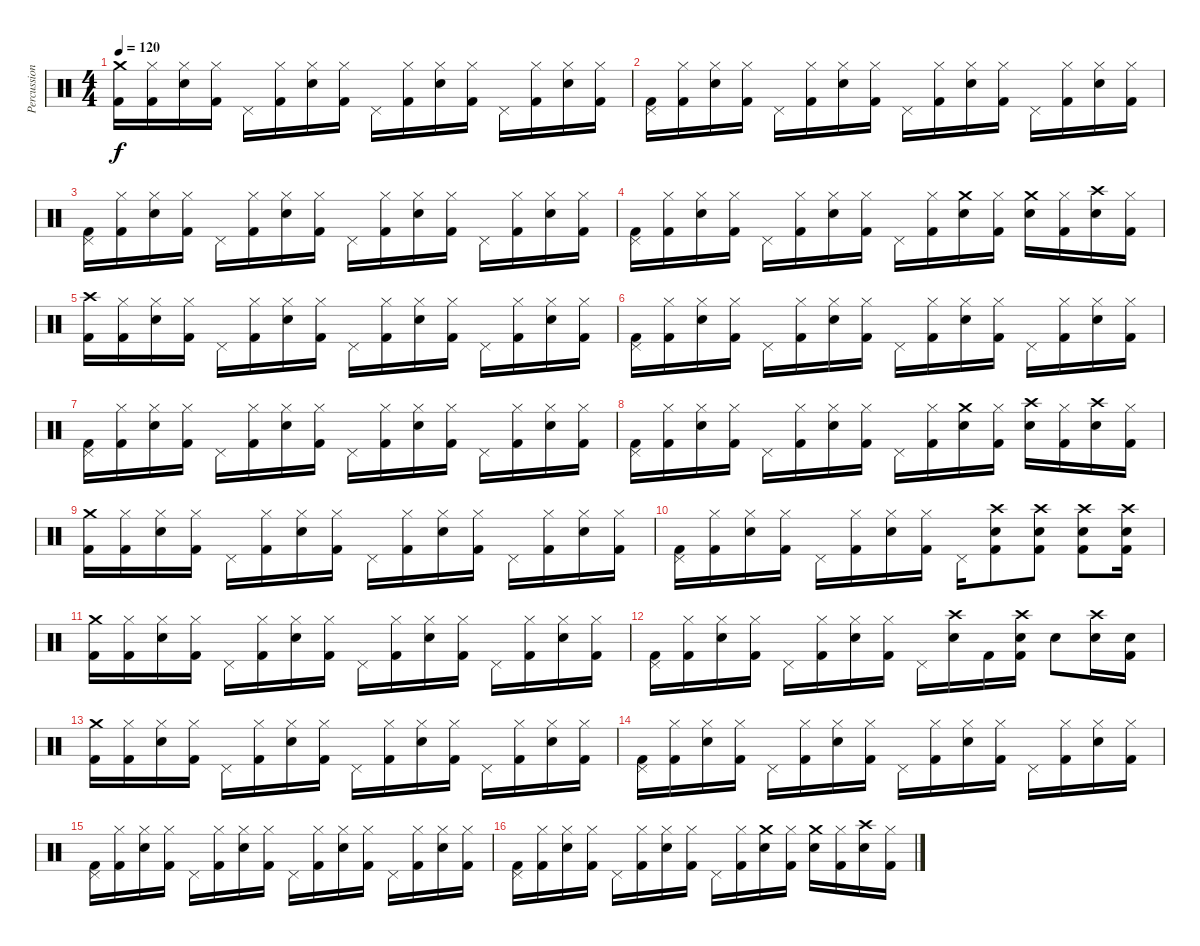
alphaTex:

\track ("Percussion" "Percussion") {instrument percussion}
\staff {score}
\articulation defaults
\ts (4 4)
\tempo 120
\clef neutral
\ks c
("Crash medium (hit)" "Kick (hit) 2").16{dy f} ("Hi-Hat (closed)" "Kick (hit) 2").16 ("Hi-Hat (closed)" "Snare (hit) 2").16 ("Hi-Hat (closed)" "Kick (hit) 2").16 "Pedal Hi-Hat (hit)".16 ("Hi-Hat (closed)" "Kick (hit) 2").16 ("Hi-Hat (closed)" "Snare (hit) 2").16 ("Hi-Hat (closed)" "Kick (hit) 2").16 "Pedal Hi-Hat (hit)".16 ("Hi-Hat (closed)" "Kick (hit) 2").16 ("Hi-Hat (closed)" "Snare (hit) 2").16 ("Hi-Hat (closed)" "Kick (hit) 2").16 "Pedal Hi-Hat (hit)".16 ("Hi-Hat (closed)" "Kick (hit) 2").16 ("Hi-Hat (closed)" "Snare (hit) 2").16 ("Hi-Hat (closed)" "Kick (hit) 2").16 |
("Pedal Hi-Hat (hit)" "Kick (hit) 2").16 ("Hi-Hat (closed)" "Kick (hit) 2").16 ("Hi-Hat (closed)" "Snare (hit) 2").16 ("Hi-Hat (closed)" "Kick (hit) 2").16 "Pedal Hi-Hat (hit)".16 ("Hi-Hat (closed)" "Kick (hit) 2").16 ("Hi-Hat (closed)" "Snare (hit) 2").16 ("Hi-Hat (closed)" "Kick (hit) 2").16 "Pedal Hi-Hat (hit)".16 ("Hi-Hat (closed)" "Kick (hit) 2").16 ("Hi-Hat (closed)" "Snare (hit) 2").16 ("Hi-Hat (closed)" "Kick (hit) 2").16 "Pedal Hi-Hat (hit)".16 ("Hi-Hat (closed)" "Kick (hit) 2").16 ("Hi-Hat (closed)" "Snare (hit) 2").16 ("Hi-Hat (closed)" "Kick (hit) 2").16 |
("Pedal Hi-Hat (hit)" "Kick (hit) 2").16 ("Hi-Hat (closed)" "Kick (hit) 2").16 ("Hi-Hat (closed)" "Snare (hit) 2").16 ("Hi-Hat (closed)" "Kick (hit) 2").16 "Pedal Hi-Hat (hit)".16 ("Hi-Hat (closed)" "Kick (hit) 2").16 ("Hi-Hat (closed)" "Snare (hit) 2").16 ("Hi-Hat (closed)" "Kick (hit) 2").16 "Pedal Hi-Hat (hit)".16 ("Hi-Hat (closed)" "Kick (hit) 2").16 ("Hi-Hat (closed)" "Snare (hit) 2").16 ("Hi-Hat (closed)" "Kick (hit) 2").16 "Pedal Hi-Hat (hit)".16 ("Hi-Hat (closed)" "Kick (hit) 2").16 ("Hi-Hat (closed)" "Snare (hit) 2").16 ("Hi-Hat (closed)" "Kick (hit) 2").16 |
("Pedal Hi-Hat (hit)" "Kick (hit) 2").16 ("Hi-Hat (closed)" "Kick (hit) 2").16 ("Hi-Hat (closed)" "Snare (hit) 2").16 ("Hi-Hat (closed)" "Kick (hit) 2").16 "Pedal Hi-Hat (hit)".16 ("Hi-Hat (closed)" "Kick (hit) 2").16 ("Hi-Hat (closed)" "Snare (hit) 2").16 ("Hi-Hat (closed)" "Kick (hit) 2").16 "Pedal Hi-Hat (hit)".16 ("Hi-Hat (closed)" "Kick (hit) 2").16 ("Crash medium (hit)" "Snare (hit) 2").16 ("Hi-Hat (closed)" "Kick (hit) 2").16 ("Crash medium (hit)" "Snare (hit) 2").16 ("Hi-Hat (closed)" "Kick (hit) 2").16 ("Crash high (hit)" "Snare (hit) 2").16 ("Hi-Hat (closed)" "Kick (hit) 2").16 |
("Crash high (hit)" "Kick (hit) 2").16 ("Hi-Hat (closed)" "Kick (hit) 2").16 ("Hi-Hat (closed)" "Snare (hit) 2").16 ("Hi-Hat (closed)" "Kick (hit) 2").16 "Pedal Hi-Hat (hit)".16 ("Hi-Hat (closed)" "Kick (hit) 2").16 ("Hi-Hat (closed)" "Snare (hit) 2").16 ("Hi-Hat (closed)" "Kick (hit) 2").16 "Pedal Hi-Hat (hit)".16 ("Hi-Hat (closed)" "Kick (hit) 2").16 ("Hi-Hat (closed)" "Snare (hit) 2").16 ("Hi-Hat (closed)" "Kick (hit) 2").16 "Pedal Hi-Hat (hit)".16 ("Hi-Hat (closed)" "Kick (hit) 2").16 ("Hi-Hat (closed)" "Snare (hit) 2").16 ("Hi-Hat (closed)" "Kick (hit) 2").16 |
("Pedal Hi-Hat (hit)" "Kick (hit) 2").16 ("Hi-Hat (closed)" "Kick (hit) 2").16 ("Hi-Hat (closed)" "Snare (hit) 2").16 ("Hi-Hat (closed)" "Kick (hit) 2").16 "Pedal Hi-Hat (hit)".16 ("Hi-Hat (closed)" "Kick (hit) 2").16 ("Hi-Hat (closed)" "Snare (hit) 2").16 ("Hi-Hat (closed)" "Kick (hit) 2").16 "Pedal Hi-Hat (hit)".16 ("Hi-Hat (closed)" "Kick (hit) 2").16 ("Hi-Hat (closed)" "Snare (hit) 2").16 ("Hi-Hat (closed)" "Kick (hit) 2").16 "Pedal Hi-Hat (hit)".16 ("Hi-Hat (closed)" "Kick (hit) 2").16 ("Hi-Hat (closed)" "Snare (hit) 2").16 ("Hi-Hat (closed)" "Kick (hit) 2").16 |
("Pedal Hi-Hat (hit)" "Kick (hit) 2").16 ("Hi-Hat (closed)" "Kick (hit) 2").16 ("Hi-Hat (closed)" "Snare (hit) 2").16 ("Hi-Hat (closed)" "Kick (hit) 2").16 "Pedal Hi-Hat (hit)".16 ("Hi-Hat (closed)" "Kick (hit) 2").16 ("Hi-Hat (closed)" "Snare (hit) 2").16 ("Hi-Hat (closed)" "Kick (hit) 2").16 "Pedal Hi-Hat (hit)".16 ("Hi-Hat (closed)" "Kick (hit) 2").16 ("Hi-Hat (closed)" "Snare (hit) 2").16 ("Hi-Hat (closed)" "Kick (hit) 2").16 "Pedal Hi-Hat (hit)".16 ("Hi-Hat (closed)" "Kick (hit) 2").16 ("Hi-Hat (closed)" "Snare (hit) 2").16 ("Hi-Hat (closed)" "Kick (hit) 2").16 |
("Pedal Hi-Hat (hit)" "Kick (hit) 2").16 ("Hi-Hat (closed)" "Kick (hit) 2").16 ("Hi-Hat (closed)" "Snare (hit) 2").16 ("Hi-Hat (closed)" "Kick (hit) 2").16 "Pedal Hi-Hat (hit)".16 ("Hi-Hat (closed)" "Kick (hit) 2").16 ("Hi-Hat (closed)" "Snare (hit) 2").16 ("Hi-Hat (closed)" "Kick (hit) 2").16 "Pedal Hi-Hat (hit)".16 ("Hi-Hat (closed)" "Kick (hit) 2").16 ("Crash medium (hit)" "Snare (hit) 2").16 ("Hi-Hat (closed)" "Kick (hit) 2").16 ("Crash high (hit)" "Snare (hit) 2").16 ("Hi-Hat (closed)" "Kick (hit) 2").16 ("Crash high (hit)" "Snare (hit) 2").16 ("Hi-Hat (closed)" "Kick (hit) 2").16 |
("Crash medium (hit)" "Kick (hit) 2").16 ("Hi-Hat (closed)" "Kick (hit) 2").16 ("Hi-Hat (closed)" "Snare (hit) 2").16 ("Hi-Hat (closed)" "Kick (hit) 2").16 "Pedal Hi-Hat (hit)".16 ("Hi-Hat (closed)" "Kick (hit) 2").16 ("Hi-Hat (closed)" "Snare (hit) 2").16 ("Hi-Hat (closed)" "Kick (hit) 2").16 "Pedal Hi-Hat (hit)".16 ("Hi-Hat (closed)" "Kick (hit) 2").16 ("Hi-Hat (closed)" "Snare (hit) 2").16 ("Hi-Hat (closed)" "Kick (hit) 2").16 "Pedal Hi-Hat (hit)".16 ("Hi-Hat (closed)" "Kick (hit) 2").16 ("Hi-Hat (closed)" "Snare (hit) 2").16 ("Hi-Hat (closed)" "Kick (hit) 2").16 |
("Pedal Hi-Hat (hit)" "Kick (hit) 2").16 ("Hi-Hat (closed)" "Kick (hit) 2").16 ("Hi-Hat (closed)" "Snare (hit) 2").16 ("Hi-Hat (closed)" "Kick (hit) 2").16 "Pedal Hi-Hat (hit)".16 ("Hi-Hat (closed)" "Kick (hit) 2").16 ("Hi-Hat (closed)" "Snare (hit) 2").16 ("Hi-Hat (closed)" "Kick (hit) 2").16 "Pedal Hi-Hat (hit)".16 ("Crash high (hit)" "Snare (hit) 2" "Kick (hit) 2").8 ("Crash high (hit)" "Snare (hit) 2" "Kick (hit) 2").8 ("Crash high (hit)" "Snare (hit) 2" "Kick (hit) 2").8 ("Crash high (hit)" "Snare (hit) 2" "Kick (hit) 2").16 |
("Crash medium (hit)" "Kick (hit) 2").16 ("Hi-Hat (closed)" "Kick (hit) 2").16 ("Hi-Hat (closed)" "Snare (hit) 2").16 ("Hi-Hat (closed)" "Kick (hit) 2").16 "Pedal Hi-Hat (hit)".16 ("Hi-Hat (closed)" "Kick (hit) 2").16 ("Hi-Hat (closed)" "Snare (hit) 2").16 ("Hi-Hat (closed)" "Kick (hit) 2").16 "Pedal Hi-Hat (hit)".16 ("Hi-Hat (closed)" "Kick (hit) 2").16 ("Hi-Hat (closed)" "Snare (hit) 2").16 ("Hi-Hat (closed)" "Kick (hit) 2").16 "Pedal Hi-Hat (hit)".16 ("Hi-Hat (closed)" "Kick (hit) 2").16 ("Hi-Hat (closed)" "Snare (hit) 2").16 ("Hi-Hat (closed)" "Kick (hit) 2").16 |
("Pedal Hi-Hat (hit)" "Kick (hit) 2").16 ("Hi-Hat (closed)" "Kick (hit) 2").16 ("Hi-Hat (closed)" "Snare (hit) 2").16 ("Hi-Hat (closed)" "Kick (hit) 2").16 "Pedal Hi-Hat (hit)".16 ("Hi-Hat (closed)" "Kick (hit) 2").16 ("Hi-Hat (closed)" "Snare (hit) 2").16 ("Hi-Hat (closed)" "Kick (hit) 2").16 "Pedal Hi-Hat (hit)".16 ("Crash high (hit)" "Electric Snare (hit)").16 "Kick (hit) 2".16 ("Crash high (hit)" "Electric Snare (hit)" "Kick (hit) 2").16 "Electric Snare (hit)".8 ("Crash high (hit)" "Electric Snare (hit)").16 ("Electric Snare (hit)" "Kick (hit) 2").16 |
("Crash medium (hit)" "Kick (hit) 2").16 ("Hi-Hat (closed)" "Kick (hit) 2").16 ("Hi-Hat (closed)" "Snare (hit) 2").16 ("Hi-Hat (closed)" "Kick (hit) 2").16 "Pedal Hi-Hat (hit)".16 ("Hi-Hat (closed)" "Kick (hit) 2").16 ("Hi-Hat (closed)" "Snare (hit) 2").16 ("Hi-Hat (closed)" "Kick (hit) 2").16 "Pedal Hi-Hat (hit)".16 ("Hi-Hat (closed)" "Kick (hit) 2").16 ("Hi-Hat (closed)" "Snare (hit) 2").16 ("Hi-Hat (closed)" "Kick (hit) 2").16 "Pedal Hi-Hat (hit)".16 ("Hi-Hat (closed)" "Kick (hit) 2").16 ("Hi-Hat (closed)" "Snare (hit) 2").16 ("Hi-Hat (closed)" "Kick (hit) 2").16 |
("Pedal Hi-Hat (hit)" "Kick (hit) 2").16 ("Hi-Hat (closed)" "Kick (hit) 2").16 ("Hi-Hat (closed)" "Snare (hit) 2").16 ("Hi-Hat (closed)" "Kick (hit) 2").16 "Pedal Hi-Hat (hit)".16 ("Hi-Hat (closed)" "Kick (hit) 2").16 ("Hi-Hat (closed)" "Snare (hit) 2").16 ("Hi-Hat (closed)" "Kick (hit) 2").16 "Pedal Hi-Hat (hit)".16 ("Hi-Hat (closed)" "Kick (hit) 2").16 ("Hi-Hat (closed)" "Snare (hit) 2").16 ("Hi-Hat (closed)" "Kick (hit) 2").16 "Pedal Hi-Hat (hit)".16 ("Hi-Hat (closed)" "Kick (hit) 2").16 ("Hi-Hat (closed)" "Snare (hit) 2").16 ("Hi-Hat (closed)" "Kick (hit) 2").16 |
("Pedal Hi-Hat (hit)" "Kick (hit) 2").16 ("Hi-Hat (closed)" "Kick (hit) 2").16 ("Hi-Hat (closed)" "Snare (hit) 2").16 ("Hi-Hat (closed)" "Kick (hit) 2").16 "Pedal Hi-Hat (hit)".16 ("Hi-Hat (closed)" "Kick (hit) 2").16 ("Hi-Hat (closed)" "Snare (hit) 2").16 ("Hi-Hat (closed)" "Kick (hit) 2").16 "Pedal Hi-Hat (hit)".16 ("Hi-Hat (closed)" "Kick (hit) 2").16 ("Hi-Hat (closed)" "Snare (hit) 2").16 ("Hi-Hat (closed)" "Kick (hit) 2").16 "Pedal Hi-Hat (hit)".16 ("Hi-Hat (closed)" "Kick (hit) 2").16 ("Hi-Hat (closed)" "Snare (hit) 2").16 ("Hi-Hat (closed)" "Kick (hit) 2").16 |
("Pedal Hi-Hat (hit)" "Kick (hit) 2").16 ("Hi-Hat (closed)" "Kick (hit) 2").16 ("Hi-Hat (closed)" "Snare (hit) 2").16 ("Hi-Hat (closed)" "Kick (hit) 2").16 "Pedal Hi-Hat (hit)".16 ("Hi-Hat (closed)" "Kick (hit) 2").16 ("Hi-Hat (closed)" "Snare (hit) 2").16 ("Hi-Hat (closed)" "Kick (hit) 2").16 "Pedal Hi-Hat (hit)".16 ("Hi-Hat (closed)" "Kick (hit) 2").16 ("Crash medium (hit)" "Snare (hit) 2").16 ("Hi-Hat (closed)" "Kick (hit) 2").16 ("Crash medium (hit)" "Snare (hit) 2").16 ("Hi-Hat (closed)" "Kick (hit) 2").16 ("Crash high (hit)" "Snare (hit) 2").16 ("Hi-Hat (closed)" "Kick (hit) 2").16
